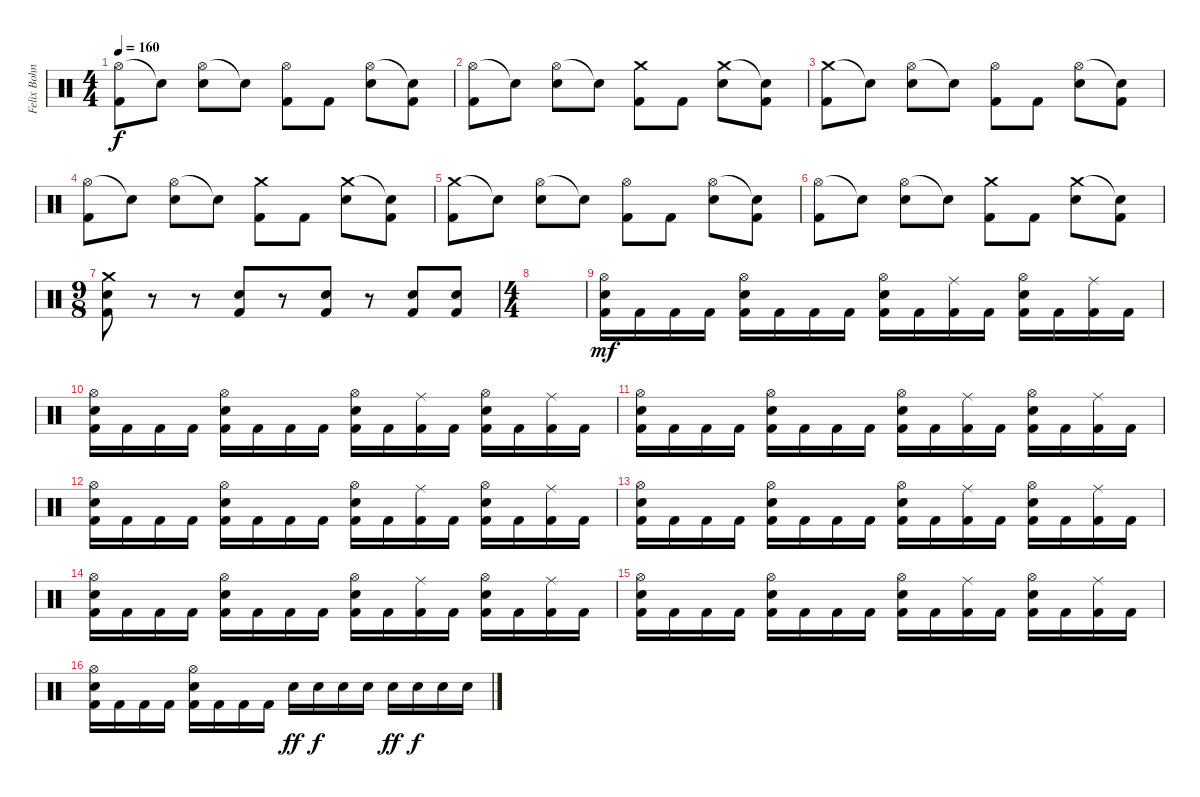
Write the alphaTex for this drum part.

\track ("Felix Bohnke" "Felix Bohn") {instrument percussion}
\staff {score}
\articulation defaults
\ts (4 4)
\tempo 160
\clef neutral
\ks c
("Hi-Hat (open)" "Kick (hit) 2").8{dy f} "Snare (hit)"{t}.8 ("Hi-Hat (open)" "Electric Snare (hit)").8 "Snare (hit)"{t}.8 ("Hi-Hat (open)" "Kick (hit) 2").8 "Kick (hit) 2".8 ("Hi-Hat (open)" "Electric Snare (hit)").8 ("Snare (hit)"{t} "Kick (hit) 2").8 |
("Hi-Hat (open)" "Kick (hit) 2").8 "Snare (hit)"{t}.8 ("Hi-Hat (open)" "Electric Snare (hit)").8 "Snare (hit)"{t}.8 ("Crash medium (hit)" "Kick (hit) 2").8 "Kick (hit) 2".8 ("Crash medium (hit)" "Electric Snare (hit)").8 ("Snare (hit)"{t} "Kick (hit) 2").8 |
("Crash medium (hit)" "Kick (hit) 2").8 "Snare (hit)"{t}.8 ("Hi-Hat (open)" "Electric Snare (hit)").8 "Snare (hit)"{t}.8 ("Hi-Hat (open)" "Kick (hit) 2").8 "Kick (hit) 2".8 ("Hi-Hat (open)" "Electric Snare (hit)").8 ("Snare (hit)"{t} "Kick (hit) 2").8 |
("Hi-Hat (open)" "Kick (hit) 2").8 "Snare (hit)"{t}.8 ("Hi-Hat (open)" "Electric Snare (hit)").8 "Snare (hit)"{t}.8 ("Crash medium (hit)" "Kick (hit) 2").8 "Kick (hit) 2".8 ("Crash medium (hit)" "Electric Snare (hit)").8 ("Snare (hit)"{t} "Kick (hit) 2").8 |
("Crash medium (hit)" "Kick (hit) 2").8 "Snare (hit)"{t}.8 ("Hi-Hat (open)" "Electric Snare (hit)").8 "Snare (hit)"{t}.8 ("Hi-Hat (open)" "Kick (hit) 2").8 "Kick (hit) 2".8 ("Hi-Hat (open)" "Electric Snare (hit)").8 ("Snare (hit)"{t} "Kick (hit) 2").8 |
("Hi-Hat (open)" "Kick (hit) 2").8 "Snare (hit)"{t}.8 ("Hi-Hat (open)" "Electric Snare (hit)").8 "Snare (hit)"{t}.8 ("Crash medium (hit)" "Kick (hit) 2").8 "Kick (hit) 2".8 ("Crash medium (hit)" "Electric Snare (hit)").8 ("Snare (hit)"{t} "Kick (hit) 2").8 |
\ts (9 8)
("Crash medium (hit)" "Electric Snare (hit)" "Kick (hit) 2").8 r.8 r.8 ("Electric Snare (hit)" "Kick (hit) 2").8 r.8 ("Electric Snare (hit)" "Kick (hit) 2").8 r.8 ("Electric Snare (hit)" "Kick (hit) 2").8 ("Electric Snare (hit)" "Kick (hit) 2").8 |
\ts (4 4)
|
("Hi-Hat (open)" "Electric Snare (hit)" "Kick (hit) 2").16{dy mf} "Kick (hit) 2".16 "Kick (hit) 2".16 "Kick (hit) 2".16 ("Hi-Hat (open)" "Electric Snare (hit)" "Kick (hit) 2").16 "Kick (hit) 2".16 "Kick (hit) 2".16 "Kick (hit) 2".16 ("Hi-Hat (open)" "Electric Snare (hit)" "Kick (hit) 2").16 "Kick (hit) 2".16 ("Ride (middle)" "Kick (hit) 2").16 "Kick (hit) 2".16 ("Hi-Hat (open)" "Electric Snare (hit)" "Kick (hit) 2").16 "Kick (hit) 2".16 ("Ride (middle)" "Kick (hit) 2").16 "Kick (hit) 2".16 |
("Hi-Hat (open)" "Electric Snare (hit)" "Kick (hit) 2").16 "Kick (hit) 2".16 "Kick (hit) 2".16 "Kick (hit) 2".16 ("Hi-Hat (open)" "Electric Snare (hit)" "Kick (hit) 2").16 "Kick (hit) 2".16 "Kick (hit) 2".16 "Kick (hit) 2".16 ("Hi-Hat (open)" "Electric Snare (hit)" "Kick (hit) 2").16 "Kick (hit) 2".16 ("Ride (middle)" "Kick (hit) 2").16 "Kick (hit) 2".16 ("Hi-Hat (open)" "Electric Snare (hit)" "Kick (hit) 2").16 "Kick (hit) 2".16 ("Ride (middle)" "Kick (hit) 2").16 "Kick (hit) 2".16 |
("Hi-Hat (open)" "Electric Snare (hit)" "Kick (hit) 2").16 "Kick (hit) 2".16 "Kick (hit) 2".16 "Kick (hit) 2".16 ("Hi-Hat (open)" "Electric Snare (hit)" "Kick (hit) 2").16 "Kick (hit) 2".16 "Kick (hit) 2".16 "Kick (hit) 2".16 ("Hi-Hat (open)" "Electric Snare (hit)" "Kick (hit) 2").16 "Kick (hit) 2".16 ("Ride (middle)" "Kick (hit) 2").16 "Kick (hit) 2".16 ("Hi-Hat (open)" "Electric Snare (hit)" "Kick (hit) 2").16 "Kick (hit) 2".16 ("Ride (middle)" "Kick (hit) 2").16 "Kick (hit) 2".16 |
("Hi-Hat (open)" "Electric Snare (hit)" "Kick (hit) 2").16 "Kick (hit) 2".16 "Kick (hit) 2".16 "Kick (hit) 2".16 ("Hi-Hat (open)" "Electric Snare (hit)" "Kick (hit) 2").16 "Kick (hit) 2".16 "Kick (hit) 2".16 "Kick (hit) 2".16 ("Hi-Hat (open)" "Electric Snare (hit)" "Kick (hit) 2").16 "Kick (hit) 2".16 ("Ride (middle)" "Kick (hit) 2").16 "Kick (hit) 2".16 ("Hi-Hat (open)" "Electric Snare (hit)" "Kick (hit) 2").16 "Kick (hit) 2".16 ("Ride (middle)" "Kick (hit) 2").16 "Kick (hit) 2".16 |
("Hi-Hat (open)" "Electric Snare (hit)" "Kick (hit) 2").16 "Kick (hit) 2".16 "Kick (hit) 2".16 "Kick (hit) 2".16 ("Hi-Hat (open)" "Electric Snare (hit)" "Kick (hit) 2").16 "Kick (hit) 2".16 "Kick (hit) 2".16 "Kick (hit) 2".16 ("Hi-Hat (open)" "Electric Snare (hit)" "Kick (hit) 2").16 "Kick (hit) 2".16 ("Ride (middle)" "Kick (hit) 2").16 "Kick (hit) 2".16 ("Hi-Hat (open)" "Electric Snare (hit)" "Kick (hit) 2").16 "Kick (hit) 2".16 ("Ride (middle)" "Kick (hit) 2").16 "Kick (hit) 2".16 |
("Hi-Hat (open)" "Electric Snare (hit)" "Kick (hit) 2").16 "Kick (hit) 2".16 "Kick (hit) 2".16 "Kick (hit) 2".16 ("Hi-Hat (open)" "Electric Snare (hit)" "Kick (hit) 2").16 "Kick (hit) 2".16 "Kick (hit) 2".16 "Kick (hit) 2".16 ("Hi-Hat (open)" "Electric Snare (hit)" "Kick (hit) 2").16 "Kick (hit) 2".16 ("Ride (middle)" "Kick (hit) 2").16 "Kick (hit) 2".16 ("Hi-Hat (open)" "Electric Snare (hit)" "Kick (hit) 2").16 "Kick (hit) 2".16 ("Ride (middle)" "Kick (hit) 2").16 "Kick (hit) 2".16 |
("Hi-Hat (open)" "Electric Snare (hit)" "Kick (hit) 2").16 "Kick (hit) 2".16 "Kick (hit) 2".16 "Kick (hit) 2".16 ("Hi-Hat (open)" "Electric Snare (hit)" "Kick (hit) 2").16 "Kick (hit) 2".16 "Kick (hit) 2".16 "Kick (hit) 2".16 ("Hi-Hat (open)" "Electric Snare (hit)" "Kick (hit) 2").16 "Kick (hit) 2".16 ("Ride (middle)" "Kick (hit) 2").16 "Kick (hit) 2".16 ("Hi-Hat (open)" "Electric Snare (hit)" "Kick (hit) 2").16 "Kick (hit) 2".16 ("Ride (middle)" "Kick (hit) 2").16 "Kick (hit) 2".16 |
("Hi-Hat (open)" "Electric Snare (hit)" "Kick (hit) 2").16 "Kick (hit) 2".16 "Kick (hit) 2".16 "Kick (hit) 2".16 ("Hi-Hat (open)" "Electric Snare (hit)" "Kick (hit) 2").16 "Kick (hit) 2".16 "Kick (hit) 2".16 "Kick (hit) 2".16 "Electric Snare (hit)".16{dy ff} "Electric Snare (hit)".16{dy f} "Electric Snare (hit)".16 "Electric Snare (hit)".16 "Electric Snare (hit)".16{dy ff} "Electric Snare (hit)".16{dy f} "Electric Snare (hit)".16 "Electric Snare (hit)".16
